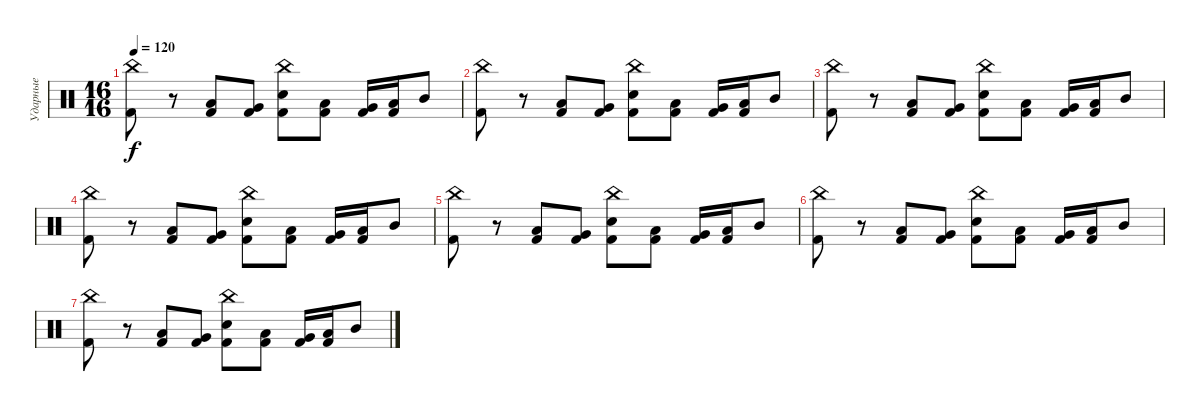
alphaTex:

\track ("Ударные" "Ударные") {instrument percussion}
\staff {score}
\articulation defaults
\ts (16 16)
\tempo 120
\clef neutral
\ks c
("China (hit)" "Kick (hit) 2").8{dy f} r.8 ("Low Tom (hit)" "Kick (hit) 2").8 ("Very Low Tom (hit)" "Kick (hit) 2").8 ("China (hit)" "Electric Snare (hit)" "Kick (hit) 2").8 ("Low Tom (hit)" "Kick (hit) 2").8 ("Very Low Tom (hit)" "Kick (hit) 2").16 ("Low Tom (hit)" "Kick (hit) 2").16 "Mid Tom (hit)".8 |
("China (hit)" "Kick (hit) 2").8{volume 14} r.8 ("Low Tom (hit)" "Kick (hit) 2").8 ("Very Low Tom (hit)" "Kick (hit) 2").8 ("China (hit)" "Electric Snare (hit)" "Kick (hit) 2").8 ("Low Tom (hit)" "Kick (hit) 2").8 ("Very Low Tom (hit)" "Kick (hit) 2").16 ("Low Tom (hit)" "Kick (hit) 2").16 "Mid Tom (hit)".8 |
("China (hit)" "Kick (hit) 2").8{volume 13} r.8 ("Low Tom (hit)" "Kick (hit) 2").8 ("Very Low Tom (hit)" "Kick (hit) 2").8 ("China (hit)" "Electric Snare (hit)" "Kick (hit) 2").8 ("Low Tom (hit)" "Kick (hit) 2").8 ("Very Low Tom (hit)" "Kick (hit) 2").16 ("Low Tom (hit)" "Kick (hit) 2").16 "Mid Tom (hit)".8 |
("China (hit)" "Kick (hit) 2").8{volume 12} r.8 ("Low Tom (hit)" "Kick (hit) 2").8 ("Very Low Tom (hit)" "Kick (hit) 2").8 ("China (hit)" "Electric Snare (hit)" "Kick (hit) 2").8 ("Low Tom (hit)" "Kick (hit) 2").8 ("Very Low Tom (hit)" "Kick (hit) 2").16 ("Low Tom (hit)" "Kick (hit) 2").16 "Mid Tom (hit)".8 |
("China (hit)" "Kick (hit) 2").8{volume 11} r.8 ("Low Tom (hit)" "Kick (hit) 2").8 ("Very Low Tom (hit)" "Kick (hit) 2").8 ("China (hit)" "Electric Snare (hit)" "Kick (hit) 2").8 ("Low Tom (hit)" "Kick (hit) 2").8 ("Very Low Tom (hit)" "Kick (hit) 2").16 ("Low Tom (hit)" "Kick (hit) 2").16 "Mid Tom (hit)".8 |
("China (hit)" "Kick (hit) 2").8{volume 9} r.8 ("Low Tom (hit)" "Kick (hit) 2").8 ("Very Low Tom (hit)" "Kick (hit) 2").8 ("China (hit)" "Electric Snare (hit)" "Kick (hit) 2").8 ("Low Tom (hit)" "Kick (hit) 2").8 ("Very Low Tom (hit)" "Kick (hit) 2").16 ("Low Tom (hit)" "Kick (hit) 2").16 "Mid Tom (hit)".8 |
("China (hit)" "Kick (hit) 2").8{volume 7} r.8 ("Low Tom (hit)" "Kick (hit) 2").8 ("Very Low Tom (hit)" "Kick (hit) 2").8 ("China (hit)" "Electric Snare (hit)" "Kick (hit) 2").8 ("Low Tom (hit)" "Kick (hit) 2").8 ("Very Low Tom (hit)" "Kick (hit) 2").16 ("Low Tom (hit)" "Kick (hit) 2").16 "Mid Tom (hit)".8
